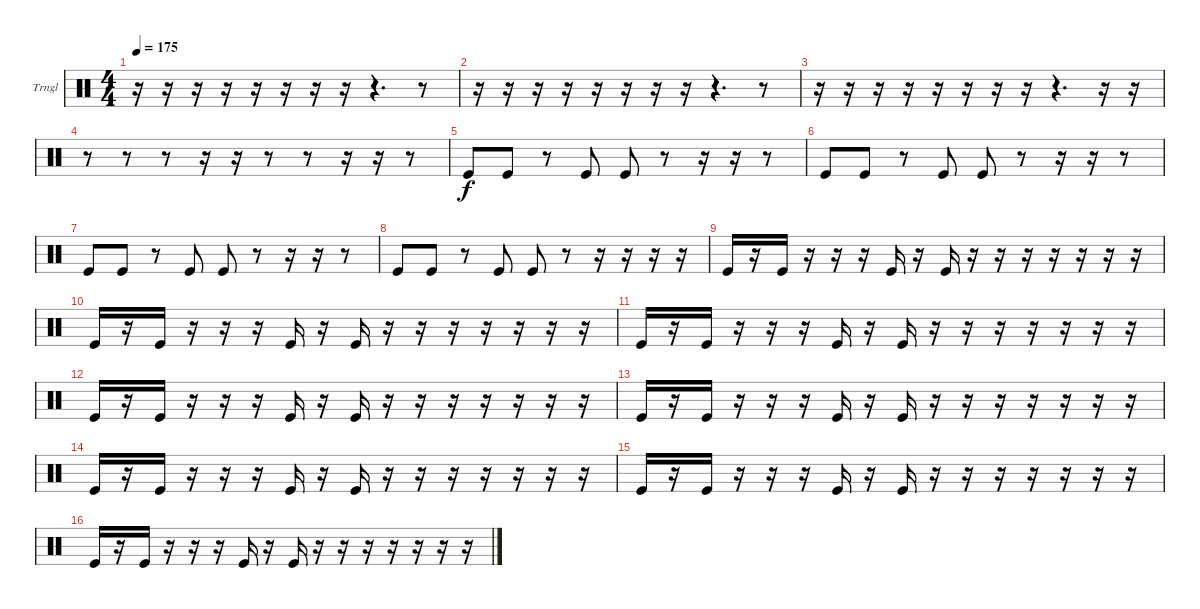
\bracketExtendMode groupsimilarinstruments
\firstSystemTrackNameOrientation horizontal
\otherSystemsTrackNameOrientation horizontal
\track ("Triangle" "Trngl") {instrument percussion}
\staff {score}
\articulation defaults
\ts (4 4)
\tempo 175
\clef neutral
\ks c
r.16{dy f} r.16 r.16 r.16 r.16 r.16 r.16 r.16 r.4{d} r.8 |
r.16 r.16 r.16 r.16 r.16 r.16 r.16 r.16 r.4{d} r.8 |
r.16 r.16 r.16 r.16 r.16 r.16 r.16 r.16 r.4{d} r.16 r.16 |
r.8 r.8 r.8 r.16 r.16 r.8 r.8 r.16 r.16 r.8 |
"Kick (hit)".8 "Kick (hit)".8 r.8 "Kick (hit)".8 "Kick (hit)".8 r.8 r.16 r.16 r.8 |
"Kick (hit)".8 "Kick (hit)".8 r.8 "Kick (hit)".8 "Kick (hit)".8 r.8 r.16 r.16 r.8 |
"Kick (hit)".8 "Kick (hit)".8 r.8 "Kick (hit)".8 "Kick (hit)".8 r.8 r.16 r.16 r.8 |
"Kick (hit)".8 "Kick (hit)".8 r.8 "Kick (hit)".8 "Kick (hit)".8 r.8 r.16 r.16 r.16 r.16 |
"Kick (hit)".16 r.16 "Kick (hit)".16 r.16 r.16 r.16 "Kick (hit)".16 r.16 "Kick (hit)".16 r.16 r.16 r.16 r.16 r.16 r.16 r.16 |
"Kick (hit)".16 r.16 "Kick (hit)".16 r.16 r.16 r.16 "Kick (hit)".16 r.16 "Kick (hit)".16 r.16 r.16 r.16 r.16 r.16 r.16 r.16 |
"Kick (hit)".16 r.16 "Kick (hit)".16 r.16 r.16 r.16 "Kick (hit)".16 r.16 "Kick (hit)".16 r.16 r.16 r.16 r.16 r.16 r.16 r.16 |
"Kick (hit)".16 r.16 "Kick (hit)".16 r.16 r.16 r.16 "Kick (hit)".16 r.16 "Kick (hit)".16 r.16 r.16 r.16 r.16 r.16 r.16 r.16 |
"Kick (hit)".16 r.16 "Kick (hit)".16 r.16 r.16 r.16 "Kick (hit)".16 r.16 "Kick (hit)".16 r.16 r.16 r.16 r.16 r.16 r.16 r.16 |
"Kick (hit)".16 r.16 "Kick (hit)".16 r.16 r.16 r.16 "Kick (hit)".16 r.16 "Kick (hit)".16 r.16 r.16 r.16 r.16 r.16 r.16 r.16 |
"Kick (hit)".16 r.16 "Kick (hit)".16 r.16 r.16 r.16 "Kick (hit)".16 r.16 "Kick (hit)".16 r.16 r.16 r.16 r.16 r.16 r.16 r.16 |
"Kick (hit)".16 r.16 "Kick (hit)".16 r.16 r.16 r.16 "Kick (hit)".16 r.16 "Kick (hit)".16 r.16 r.16 r.16 r.16 r.16 r.16 r.16
